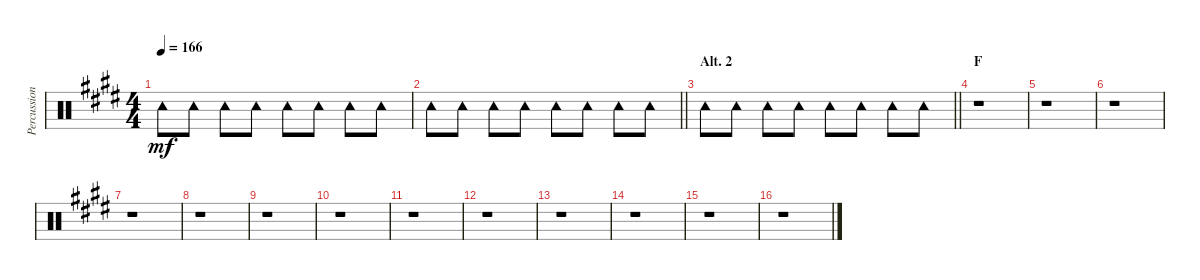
\track ("Percussion" "Percussion") {instrument percussion}
\staff {score}
\articulation defaults
\ts (4 4)
\tempo 166
\clef neutral
\ks e "Tambourine (hit)".8{dy mf} "Tambourine (hit)".8 "Tambourine (hit)".8 "Tambourine (hit)".8 "Tambourine (hit)".8 "Tambourine (hit)".8 "Tambourine (hit)".8 "Tambourine (hit)".8
|
\barLineRight lightlight "Tambourine (hit)".8 "Tambourine (hit)".8 "Tambourine (hit)".8 "Tambourine (hit)".8 "Tambourine (hit)".8 "Tambourine (hit)".8 "Tambourine (hit)".8 "Tambourine (hit)".8
|
\section ("" "Alt. 2")
\barLineRight lightlight "Tambourine (hit)".8 "Tambourine (hit)".8 "Tambourine (hit)".8 "Tambourine (hit)".8 "Tambourine (hit)".8 "Tambourine (hit)".8 "Tambourine (hit)".8 "Tambourine (hit)".8
|
\section ("" "F")
r.1 |
r.1 |
r.1 |
r.1 |
r.1 |
r.1 |
r.1 |
r.1 |
r.1 |
r.1 |
r.1 |
r.1 |
r.1
